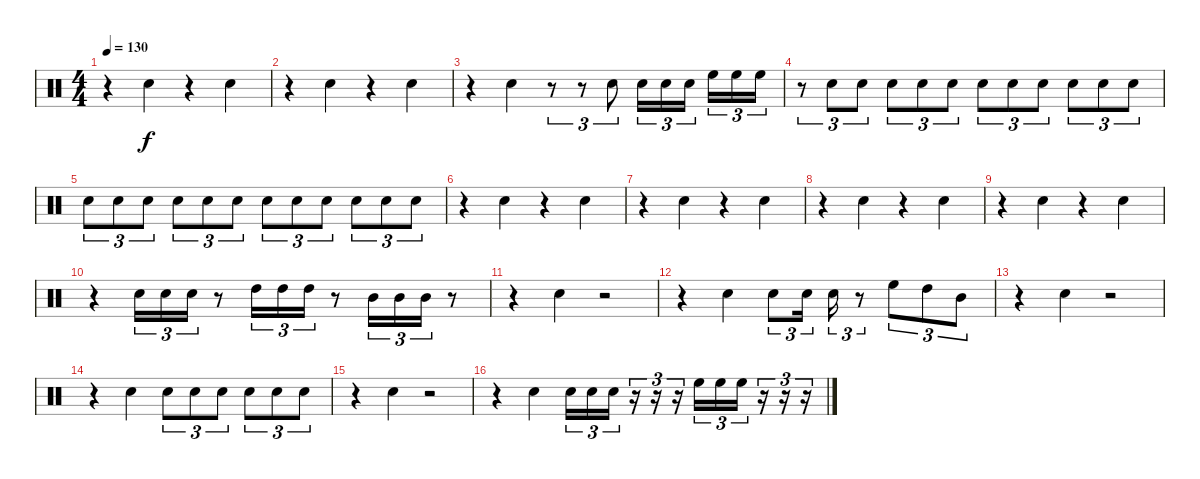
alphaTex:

\track "" {instrument percussion}
\staff {score}
\articulation defaults
\ts (4 4)
\tempo 130
\clef neutral
\ks c
r.4{dy f} "Electric Snare (hit)".4 r.4 "Electric Snare (hit)".4 |
r.4 "Electric Snare (hit)".4 r.4 "Electric Snare (hit)".4 |
r.4 "Electric Snare (hit)".4 r.8{tu (3 2)} r.8{tu (3 2)} "Electric Snare (hit)".8{tu (3 2)} "Electric Snare (hit)".16{tu (3 2)} "Electric Snare (hit)".16{tu (3 2)} "Electric Snare (hit)".16{tu (3 2)} "High Floor Tom (hit)".16{tu (3 2)} "High Floor Tom (hit)".16{tu (3 2)} "High Floor Tom (hit)".16{tu (3 2)} |
r.8{tu (3 2)} "Electric Snare (hit)".8{tu (3 2)} "Electric Snare (hit)".8{tu (3 2)} "Electric Snare (hit)".8{tu (3 2)} "Electric Snare (hit)".8{tu (3 2)} "Electric Snare (hit)".8{tu (3 2)} "Electric Snare (hit)".8{tu (3 2)} "Electric Snare (hit)".8{tu (3 2)} "Electric Snare (hit)".8{tu (3 2)} "Electric Snare (hit)".8{tu (3 2)} "Electric Snare (hit)".8{tu (3 2)} "Electric Snare (hit)".8{tu (3 2)} |
"Electric Snare (hit)".8{tu (3 2)} "Electric Snare (hit)".8{tu (3 2)} "Electric Snare (hit)".8{tu (3 2)} "Electric Snare (hit)".8{tu (3 2)} "Electric Snare (hit)".8{tu (3 2)} "Electric Snare (hit)".8{tu (3 2)} "Electric Snare (hit)".8{tu (3 2)} "Electric Snare (hit)".8{tu (3 2)} "Electric Snare (hit)".8{tu (3 2)} "Electric Snare (hit)".8{tu (3 2)} "Electric Snare (hit)".8{tu (3 2)} "Electric Snare (hit)".8{tu (3 2)} |
r.4 "Electric Snare (hit)".4 r.4 "Electric Snare (hit)".4 |
r.4 "Electric Snare (hit)".4 r.4 "Electric Snare (hit)".4 |
r.4 "Electric Snare (hit)".4 r.4 "Electric Snare (hit)".4 |
r.4 "Electric Snare (hit)".4 r.4 "Electric Snare (hit)".4 |
r.4 "Electric Snare (hit)".16{tu (3 2)} "Electric Snare (hit)".16{tu (3 2)} "Electric Snare (hit)".16{tu (3 2)} r.8 "High Tom (hit)".16{tu (3 2)} "High Tom (hit)".16{tu (3 2)} "High Tom (hit)".16{tu (3 2)} r.8 "Mid Tom (hit)".16{tu (3 2)} "Mid Tom (hit)".16{tu (3 2)} "Mid Tom (hit)".16{tu (3 2)} r.8 |
r.4 "Electric Snare (hit)".4 r.2 |
r.4 "Electric Snare (hit)".4 "Electric Snare (hit)".8{tu (3 2)} "Electric Snare (hit)".16{tu (3 2)} "Electric Snare (hit)".16{tu (3 2)} r.8{tu (3 2)} "High Floor Tom (hit)".8{tu (3 2)} "High Tom (hit)".8{tu (3 2)} "Mid Tom (hit)".8{tu (3 2)} |
r.4 "Electric Snare (hit)".4 r.2 |
r.4 "Electric Snare (hit)".4 "Electric Snare (hit)".8{tu (3 2)} "Electric Snare (hit)".8{tu (3 2)} "Electric Snare (hit)".8{tu (3 2)} "Electric Snare (hit)".8{tu (3 2)} "Electric Snare (hit)".8{tu (3 2)} "Electric Snare (hit)".8{tu (3 2)} |
r.4 "Electric Snare (hit)".4 r.2 |
r.4 "Electric Snare (hit)".4 "Electric Snare (hit)".16{tu (3 2)} "Electric Snare (hit)".16{tu (3 2)} "Electric Snare (hit)".16{tu (3 2)} r.16{tu (3 2)} r.16{tu (3 2)} r.16{tu (3 2)} "High Floor Tom (hit)".16{tu (3 2)} "High Floor Tom (hit)".16{tu (3 2)} "High Floor Tom (hit)".16{tu (3 2)} r.16{tu (3 2)} r.16{tu (3 2)} r.16{tu (3 2)}
